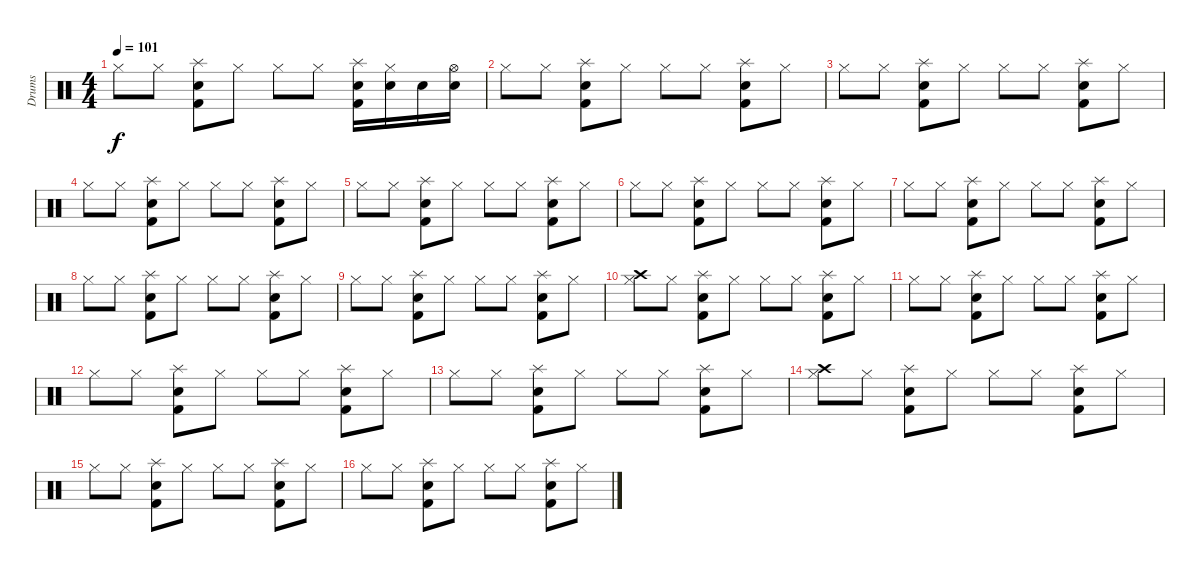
\track ("Drums" "Drums") {instrument percussion}
\staff {score}
\articulation defaults
\ts (4 4)
\tempo 101
\clef neutral
\ks c "Hi-Hat (closed)".8{dy f} "Hi-Hat (closed)".8
("Snare (hit) 2" "Splash (hit)" "Kick (hit) 2").8 "Hi-Hat (closed)".8 "Hi-Hat (closed)".8 "Hi-Hat (closed)".8 ("Snare (hit) 2" "Splash (hit)" "Kick (hit) 2").16 ("Snare (hit) 2" "Hi-Hat (closed)").16 "Snare (hit) 2".16 ("Snare (hit) 2" "Hi-Hat (open)").16 |
"Hi-Hat (closed)".8 "Hi-Hat (closed)".8 ("Snare (hit) 2" "Splash (hit)" "Kick (hit) 2").8 "Hi-Hat (closed)".8 "Hi-Hat (closed)".8 "Hi-Hat (closed)".8 ("Snare (hit) 2" "Splash (hit)" "Kick (hit) 2").8 "Hi-Hat (closed)".8 |
"Hi-Hat (closed)".8 "Hi-Hat (closed)".8 ("Snare (hit) 2" "Splash (hit)" "Kick (hit) 2").8 "Hi-Hat (closed)".8 "Hi-Hat (closed)".8 "Hi-Hat (closed)".8 ("Snare (hit) 2" "Splash (hit)" "Kick (hit) 2").8 "Hi-Hat (closed)".8 |
"Hi-Hat (closed)".8 "Hi-Hat (closed)".8 ("Snare (hit) 2" "Splash (hit)" "Kick (hit) 2").8 "Hi-Hat (closed)".8 "Hi-Hat (closed)".8 "Hi-Hat (closed)".8 ("Snare (hit) 2" "Splash (hit)" "Kick (hit) 2").8 "Hi-Hat (closed)".8 |
"Hi-Hat (closed)".8 "Hi-Hat (closed)".8 ("Snare (hit) 2" "Splash (hit)" "Kick (hit) 2").8 "Hi-Hat (closed)".8 "Hi-Hat (closed)".8 "Hi-Hat (closed)".8 ("Snare (hit) 2" "Splash (hit)" "Kick (hit) 2").8 "Hi-Hat (closed)".8 |
"Hi-Hat (closed)".8 "Hi-Hat (closed)".8 ("Snare (hit) 2" "Splash (hit)" "Kick (hit) 2").8 "Hi-Hat (closed)".8 "Hi-Hat (closed)".8 "Hi-Hat (closed)".8 ("Snare (hit) 2" "Splash (hit)" "Kick (hit) 2").8 "Hi-Hat (closed)".8 |
"Hi-Hat (closed)".8 "Hi-Hat (closed)".8 ("Snare (hit) 2" "Splash (hit)" "Kick (hit) 2").8 "Hi-Hat (closed)".8 "Hi-Hat (closed)".8 "Hi-Hat (closed)".8 ("Snare (hit) 2" "Splash (hit)" "Kick (hit) 2").8 "Hi-Hat (closed)".8 |
"Hi-Hat (closed)".8 "Hi-Hat (closed)".8 ("Snare (hit) 2" "Splash (hit)" "Kick (hit) 2").8 "Hi-Hat (closed)".8 "Hi-Hat (closed)".8 "Hi-Hat (closed)".8 ("Snare (hit) 2" "Splash (hit)" "Kick (hit) 2").8 "Hi-Hat (closed)".8 |
"Hi-Hat (closed)".8 "Hi-Hat (closed)".8 ("Snare (hit) 2" "Splash (hit)" "Kick (hit) 2").8 "Hi-Hat (closed)".8 "Hi-Hat (closed)".8 "Hi-Hat (closed)".8 ("Snare (hit) 2" "Splash (hit)" "Kick (hit) 2").8 "Hi-Hat (closed)".8 |
("Crash high (hit)" "Hi-Hat (closed)").8 "Hi-Hat (closed)".8 ("Snare (hit) 2" "Splash (hit)" "Kick (hit) 2").8 "Hi-Hat (closed)".8 "Hi-Hat (closed)".8 "Hi-Hat (closed)".8 ("Snare (hit) 2" "Splash (hit)" "Kick (hit) 2").8 "Hi-Hat (closed)".8 |
"Hi-Hat (closed)".8 "Hi-Hat (closed)".8 ("Snare (hit) 2" "Splash (hit)" "Kick (hit) 2").8 "Hi-Hat (closed)".8 "Hi-Hat (closed)".8 "Hi-Hat (closed)".8 ("Snare (hit) 2" "Splash (hit)" "Kick (hit) 2").8 "Hi-Hat (closed)".8 |
"Hi-Hat (closed)".8 "Hi-Hat (closed)".8 ("Snare (hit) 2" "Splash (hit)" "Kick (hit) 2").8 "Hi-Hat (closed)".8 "Hi-Hat (closed)".8 "Hi-Hat (closed)".8 ("Snare (hit) 2" "Splash (hit)" "Kick (hit) 2").8 "Hi-Hat (closed)".8 |
"Hi-Hat (closed)".8 "Hi-Hat (closed)".8 ("Snare (hit) 2" "Splash (hit)" "Kick (hit) 2").8 "Hi-Hat (closed)".8 "Hi-Hat (closed)".8 "Hi-Hat (closed)".8 ("Snare (hit) 2" "Splash (hit)" "Kick (hit) 2").8 "Hi-Hat (closed)".8 |
("Crash high (hit)" "Hi-Hat (closed)").8 "Hi-Hat (closed)".8 ("Snare (hit) 2" "Splash (hit)" "Kick (hit) 2").8 "Hi-Hat (closed)".8 "Hi-Hat (closed)".8 "Hi-Hat (closed)".8 ("Snare (hit) 2" "Splash (hit)" "Kick (hit) 2").8 "Hi-Hat (closed)".8 |
"Hi-Hat (closed)".8 "Hi-Hat (closed)".8 ("Snare (hit) 2" "Splash (hit)" "Kick (hit) 2").8 "Hi-Hat (closed)".8 "Hi-Hat (closed)".8 "Hi-Hat (closed)".8 ("Snare (hit) 2" "Splash (hit)" "Kick (hit) 2").8 "Hi-Hat (closed)".8 |
"Hi-Hat (closed)".8 "Hi-Hat (closed)".8 ("Snare (hit) 2" "Splash (hit)" "Kick (hit) 2").8 "Hi-Hat (closed)".8 "Hi-Hat (closed)".8 "Hi-Hat (closed)".8 ("Snare (hit) 2" "Splash (hit)" "Kick (hit) 2").8 "Hi-Hat (closed)".8
